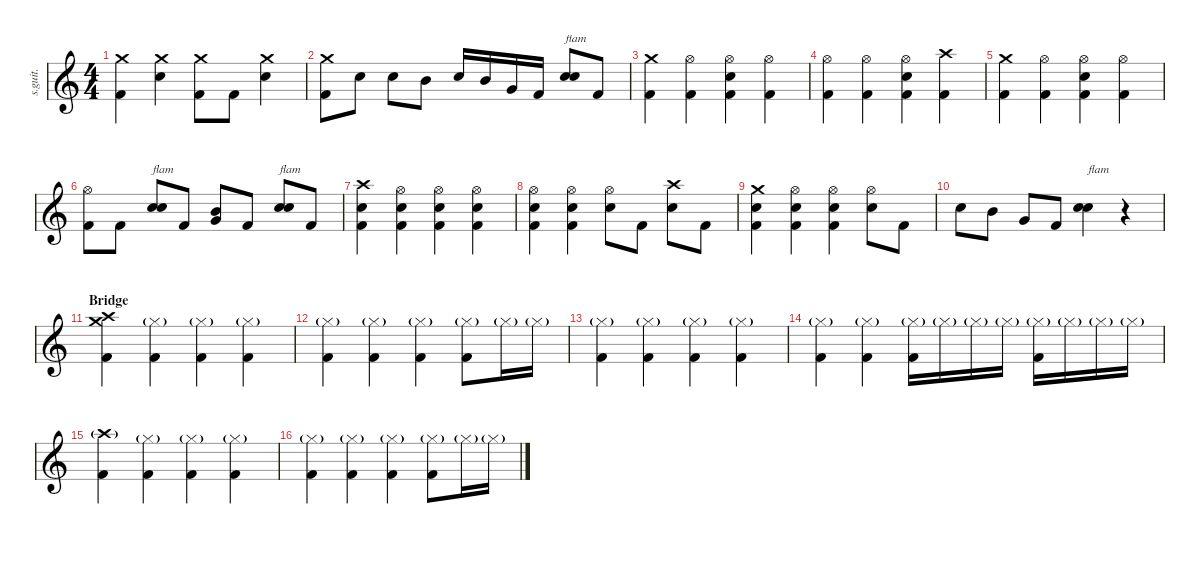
\defaultSystemsLayout 4
\hideDynamics
\bracketExtendMode nobrackets
\track ("Zac Farro | Drums" "s.guit.") {instrument percussion}
\staff {score}
\articulation defaults
\ts (4 4)
\tempo (173 hide)
\clef g2
\ks c
("Crash medium (hit)" "Kick (hit) 2").4{lyrics (0 "") lyrics (1 "") lyrics (2 "") lyrics (3 "") lyrics (4 "") dy f} ("Crash medium (hit)" "Electric Snare (hit)").4{lyrics (0 "") lyrics (1 "") lyrics (2 "") lyrics (3 "") lyrics (4 "")} ("Crash medium (hit)" "Kick (hit) 2").8{lyrics (0 "") lyrics (1 "") lyrics (2 "") lyrics (3 "") lyrics (4 "")} "Kick (hit) 2".8{lyrics (0 "") lyrics (1 "") lyrics (2 "") lyrics (3 "") lyrics (4 "")} ("Crash medium (hit)" "Electric Snare (hit)").4{lyrics (0 "") lyrics (1 "") lyrics (2 "") lyrics (3 "") lyrics (4 "")} |
("Crash medium (hit)" "Kick (hit) 2").8{lyrics (0 "") lyrics (1 "") lyrics (2 "") lyrics (3 "") lyrics (4 "")} "Electric Snare (hit)".8{lyrics (0 "") lyrics (1 "") lyrics (2 "") lyrics (3 "") lyrics (4 "")} "Electric Snare (hit)".8{lyrics (0 "") lyrics (1 "") lyrics (2 "") lyrics (3 "") lyrics (4 "")} "Mid Tom (hit)".8{lyrics (0 "") lyrics (1 "") lyrics (2 "") lyrics (3 "") lyrics (4 "")} "Electric Snare (hit)".16{lyrics (0 "") lyrics (1 "") lyrics (2 "") lyrics (3 "") lyrics (4 "")} "Mid Tom (hit)".16{lyrics (0 "") lyrics (1 "") lyrics (2 "") lyrics (3 "") lyrics (4 "")} "Very Low Tom (hit)".16{lyrics (0 "") lyrics (1 "") lyrics (2 "") lyrics (3 "") lyrics (4 "")} "Kick (hit) 2".16{lyrics (0 "") lyrics (1 "") lyrics (2 "") lyrics (3 "") lyrics (4 "")} ("Electric Snare (hit)" "Electric Snare (hit)").8{bd 30 txt "flam" lyrics (0 "") lyrics (1 "") lyrics (2 "") lyrics (3 "") lyrics (4 "")} "Kick (hit) 2".8{lyrics (0 "") lyrics (1 "") lyrics (2 "") lyrics (3 "") lyrics (4 "")} |
("Crash medium (hit)" "Kick (hit) 2").4{lyrics (0 "") lyrics (1 "") lyrics (2 "") lyrics (3 "") lyrics (4 "")} ("Hi-Hat (open)" "Kick (hit) 2").4{lyrics (0 "") lyrics (1 "") lyrics (2 "") lyrics (3 "") lyrics (4 "")} ("Hi-Hat (open)" "Electric Snare (hit)" "Kick (hit) 2").4{lyrics (0 "") lyrics (1 "") lyrics (2 "") lyrics (3 "") lyrics (4 "")} ("Hi-Hat (open)" "Kick (hit) 2").4{lyrics (0 "") lyrics (1 "") lyrics (2 "") lyrics (3 "") lyrics (4 "")} |
("Hi-Hat (open)" "Kick (hit) 2").4{lyrics (0 "") lyrics (1 "") lyrics (2 "") lyrics (3 "") lyrics (4 "")} ("Hi-Hat (open)" "Kick (hit) 2").4{lyrics (0 "") lyrics (1 "") lyrics (2 "") lyrics (3 "") lyrics (4 "")} ("Hi-Hat (open)" "Electric Snare (hit)" "Kick (hit) 2").4{lyrics (0 "") lyrics (1 "") lyrics (2 "") lyrics (3 "") lyrics (4 "")} ("Crash high (hit)" "Kick (hit) 2").4{lyrics (0 "") lyrics (1 "") lyrics (2 "") lyrics (3 "") lyrics (4 "")} |
("Crash medium (hit)" "Kick (hit) 2").4{lyrics (0 "") lyrics (1 "") lyrics (2 "") lyrics (3 "") lyrics (4 "")} ("Hi-Hat (open)" "Kick (hit) 2").4{lyrics (0 "") lyrics (1 "") lyrics (2 "") lyrics (3 "") lyrics (4 "")} ("Hi-Hat (open)" "Electric Snare (hit)" "Kick (hit) 2").4{lyrics (0 "") lyrics (1 "") lyrics (2 "") lyrics (3 "") lyrics (4 "")} ("Hi-Hat (open)" "Kick (hit) 2").4{lyrics (0 "") lyrics (1 "") lyrics (2 "") lyrics (3 "") lyrics (4 "")} |
("Hi-Hat (open)" "Kick (hit) 2").8{lyrics (0 "") lyrics (1 "") lyrics (2 "") lyrics (3 "") lyrics (4 "")} "Kick (hit) 2".8{lyrics (0 "") lyrics (1 "") lyrics (2 "") lyrics (3 "") lyrics (4 "")} ("Electric Snare (hit)" "Electric Snare (hit)").8{bd 30 txt "flam" lyrics (0 "") lyrics (1 "") lyrics (2 "") lyrics (3 "") lyrics (4 "")} "Kick (hit) 2".8{lyrics (0 "") lyrics (1 "") lyrics (2 "") lyrics (3 "") lyrics (4 "")} ("Mid Tom (hit)" "Very Low Tom (hit)").8{lyrics (0 "") lyrics (1 "") lyrics (2 "") lyrics (3 "") lyrics (4 "")} "Kick (hit) 2".8{lyrics (0 "") lyrics (1 "") lyrics (2 "") lyrics (3 "") lyrics (4 "")} ("Electric Snare (hit)" "Electric Snare (hit)").8{bd 30 txt "flam" lyrics (0 "") lyrics (1 "") lyrics (2 "") lyrics (3 "") lyrics (4 "")} "Kick (hit) 2".8{lyrics (0 "") lyrics (1 "") lyrics (2 "") lyrics (3 "") lyrics (4 "")} |
("Crash high (hit)" "Electric Snare (hit)" "Kick (hit) 2").4{lyrics (0 "") lyrics (1 "") lyrics (2 "") lyrics (3 "") lyrics (4 "")} ("Hi-Hat (open)" "Electric Snare (hit)" "Kick (hit) 2").4{lyrics (0 "") lyrics (1 "") lyrics (2 "") lyrics (3 "") lyrics (4 "")} ("Hi-Hat (open)" "Electric Snare (hit)" "Kick (hit) 2").4{lyrics (0 "") lyrics (1 "") lyrics (2 "") lyrics (3 "") lyrics (4 "")} ("Hi-Hat (open)" "Electric Snare (hit)" "Kick (hit) 2").4{lyrics (0 "") lyrics (1 "") lyrics (2 "") lyrics (3 "") lyrics (4 "")} |
("Hi-Hat (open)" "Electric Snare (hit)" "Kick (hit) 2").4{lyrics (0 "") lyrics (1 "") lyrics (2 "") lyrics (3 "") lyrics (4 "")} ("Hi-Hat (open)" "Electric Snare (hit)" "Kick (hit) 2").4{lyrics (0 "") lyrics (1 "") lyrics (2 "") lyrics (3 "") lyrics (4 "")} ("Hi-Hat (open)" "Electric Snare (hit)").8{lyrics (0 "") lyrics (1 "") lyrics (2 "") lyrics (3 "") lyrics (4 "")} "Kick (hit) 2".8{lyrics (0 "") lyrics (1 "") lyrics (2 "") lyrics (3 "") lyrics (4 "")} ("Crash high (hit)" "Electric Snare (hit)").8{lyrics (0 "") lyrics (1 "") lyrics (2 "") lyrics (3 "") lyrics (4 "")} "Kick (hit) 2".8{lyrics (0 "") lyrics (1 "") lyrics (2 "") lyrics (3 "") lyrics (4 "")} |
("Crash medium (hit)" "Electric Snare (hit)" "Kick (hit) 2").4{lyrics (0 "") lyrics (1 "") lyrics (2 "") lyrics (3 "") lyrics (4 "")} ("Hi-Hat (open)" "Electric Snare (hit)" "Kick (hit) 2").4{lyrics (0 "") lyrics (1 "") lyrics (2 "") lyrics (3 "") lyrics (4 "")} ("Hi-Hat (open)" "Electric Snare (hit)" "Kick (hit) 2").4{lyrics (0 "") lyrics (1 "") lyrics (2 "") lyrics (3 "") lyrics (4 "")} ("Hi-Hat (open)" "Electric Snare (hit)").8{lyrics (0 "") lyrics (1 "") lyrics (2 "") lyrics (3 "") lyrics (4 "")} "Kick (hit) 2".8{lyrics (0 "") lyrics (1 "") lyrics (2 "") lyrics (3 "") lyrics (4 "")} |
"Electric Snare (hit)".8{lyrics (0 "") lyrics (1 "") lyrics (2 "") lyrics (3 "") lyrics (4 "")} "Mid Tom (hit)".8{lyrics (0 "") lyrics (1 "") lyrics (2 "") lyrics (3 "") lyrics (4 "")} "Very Low Tom (hit)".8{lyrics (0 "") lyrics (1 "") lyrics (2 "") lyrics (3 "") lyrics (4 "")} "Kick (hit) 2".8{lyrics (0 "") lyrics (1 "") lyrics (2 "") lyrics (3 "") lyrics (4 "")} ("Electric Snare (hit)" "Electric Snare (hit)").4{bd 30 txt "flam" lyrics (0 "") lyrics (1 "") lyrics (2 "") lyrics (3 "") lyrics (4 "")} r.4 |
\section ("" "Bridge")
("Crash high (hit)" "Crash medium (hit)" "Kick (hit) 2").4{lyrics (0 "") lyrics (1 "") lyrics (2 "") lyrics (3 "") lyrics (4 "")} ("Hi-Hat (closed)"{g} "Kick (hit) 2").4{lyrics (0 "") lyrics (1 "") lyrics (2 "") lyrics (3 "") lyrics (4 "")} ("Hi-Hat (closed)"{g} "Kick (hit) 2").4{lyrics (0 "") lyrics (1 "") lyrics (2 "") lyrics (3 "") lyrics (4 "")} ("Hi-Hat (closed)"{g} "Kick (hit) 2").4{lyrics (0 "") lyrics (1 "") lyrics (2 "") lyrics (3 "") lyrics (4 "")} |
("Hi-Hat (closed)"{g} "Kick (hit) 2").4{lyrics (0 "") lyrics (1 "") lyrics (2 "") lyrics (3 "") lyrics (4 "")} ("Hi-Hat (closed)"{g} "Kick (hit) 2").4{lyrics (0 "") lyrics (1 "") lyrics (2 "") lyrics (3 "") lyrics (4 "")} ("Hi-Hat (closed)"{g} "Kick (hit) 2").4{lyrics (0 "") lyrics (1 "") lyrics (2 "") lyrics (3 "") lyrics (4 "")} ("Hi-Hat (closed)"{g} "Kick (hit) 2").8{lyrics (0 "") lyrics (1 "") lyrics (2 "") lyrics (3 "") lyrics (4 "")} "Hi-Hat (closed)"{g}.16{lyrics (0 "") lyrics (1 "") lyrics (2 "") lyrics (3 "") lyrics (4 "") dy mp} "Hi-Hat (closed)"{g}.16{lyrics (0 "") lyrics (1 "") lyrics (2 "") lyrics (3 "") lyrics (4 "") dy f} |
("Hi-Hat (closed)"{g} "Kick (hit) 2").4{lyrics (0 "") lyrics (1 "") lyrics (2 "") lyrics (3 "") lyrics (4 "")} ("Hi-Hat (closed)"{g} "Kick (hit) 2").4{lyrics (0 "") lyrics (1 "") lyrics (2 "") lyrics (3 "") lyrics (4 "")} ("Hi-Hat (closed)"{g} "Kick (hit) 2").4{lyrics (0 "") lyrics (1 "") lyrics (2 "") lyrics (3 "") lyrics (4 "")} ("Hi-Hat (closed)"{g} "Kick (hit) 2").4{lyrics (0 "") lyrics (1 "") lyrics (2 "") lyrics (3 "") lyrics (4 "")} |
("Hi-Hat (closed)"{g} "Kick (hit) 2").4{lyrics (0 "") lyrics (1 "") lyrics (2 "") lyrics (3 "") lyrics (4 "")} ("Hi-Hat (closed)"{g} "Kick (hit) 2").4{lyrics (0 "") lyrics (1 "") lyrics (2 "") lyrics (3 "") lyrics (4 "")} ("Hi-Hat (closed)"{g} "Kick (hit) 2").16{lyrics (0 "") lyrics (1 "") lyrics (2 "") lyrics (3 "") lyrics (4 "")} "Hi-Hat (closed)"{g}.16{lyrics (0 "") lyrics (1 "") lyrics (2 "") lyrics (3 "") lyrics (4 "")} "Hi-Hat (closed)"{g}.16{lyrics (0 "") lyrics (1 "") lyrics (2 "") lyrics (3 "") lyrics (4 "")} "Hi-Hat (closed)"{g}.16{lyrics (0 "") lyrics (1 "") lyrics (2 "") lyrics (3 "") lyrics (4 "")} ("Hi-Hat (closed)"{g} "Kick (hit) 2").16{lyrics (0 "") lyrics (1 "") lyrics (2 "") lyrics (3 "") lyrics (4 "")} "Hi-Hat (closed)"{g}.16{lyrics (0 "") lyrics (1 "") lyrics (2 "") lyrics (3 "") lyrics (4 "")} "Hi-Hat (closed)"{g}.16{lyrics (0 "") lyrics (1 "") lyrics (2 "") lyrics (3 "") lyrics (4 "")} "Hi-Hat (closed)"{g}.16{lyrics (0 "") lyrics (1 "") lyrics (2 "") lyrics (3 "") lyrics (4 "")} |
("Crash high (hit)"{g} "Kick (hit) 2").4{lyrics (0 "") lyrics (1 "") lyrics (2 "") lyrics (3 "") lyrics (4 "")} ("Hi-Hat (closed)"{g} "Kick (hit) 2").4{lyrics (0 "") lyrics (1 "") lyrics (2 "") lyrics (3 "") lyrics (4 "")} ("Hi-Hat (closed)"{g} "Kick (hit) 2").4{lyrics (0 "") lyrics (1 "") lyrics (2 "") lyrics (3 "") lyrics (4 "")} ("Hi-Hat (closed)"{g} "Kick (hit) 2").4{lyrics (0 "") lyrics (1 "") lyrics (2 "") lyrics (3 "") lyrics (4 "")} |
("Hi-Hat (closed)"{g} "Kick (hit) 2").4{lyrics (0 "") lyrics (1 "") lyrics (2 "") lyrics (3 "") lyrics (4 "")} ("Hi-Hat (closed)"{g} "Kick (hit) 2").4{lyrics (0 "") lyrics (1 "") lyrics (2 "") lyrics (3 "") lyrics (4 "")} ("Hi-Hat (closed)"{g} "Kick (hit) 2").4{lyrics (0 "") lyrics (1 "") lyrics (2 "") lyrics (3 "") lyrics (4 "")} ("Hi-Hat (closed)"{g} "Kick (hit) 2").8{lyrics (0 "") lyrics (1 "") lyrics (2 "") lyrics (3 "") lyrics (4 "")} "Hi-Hat (closed)"{g}.16{lyrics (0 "") lyrics (1 "") lyrics (2 "") lyrics (3 "") lyrics (4 "") dy mp} "Hi-Hat (closed)"{g}.16{lyrics (0 "") lyrics (1 "") lyrics (2 "") lyrics (3 "") lyrics (4 "") dy f}
